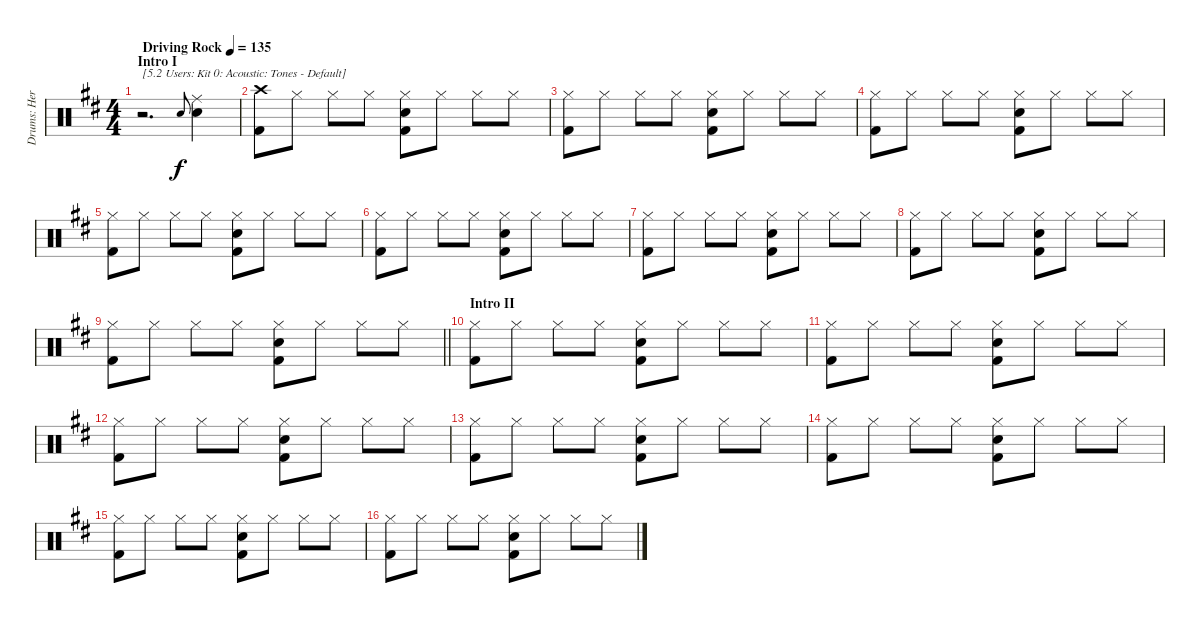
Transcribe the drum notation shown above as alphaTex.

\track ("Drums: Herman" "Drums: Her") {instrument percussion}
\staff {score}
\articulation defaults
\ts (4 4)
\section ("" "Intro I")
\tempo (135 "Driving Rock")
\clef neutral
\ks d
r.2{d txt "[5.2 Users: Kit 0: Acoustic: Tones - Default]" dy f} "Electric Snare (hit)".8{gr onbeat} ("Ride (middle)" "Snare (hit) 2").4 |
("Crash high (hit)" "Kick (hit) 2").8 "Hi-Hat (closed)".8 "Hi-Hat (closed)".8 "Hi-Hat (closed)".8 ("Hi-Hat (closed)" "Snare (hit) 2" "Kick (hit) 2").8 "Hi-Hat (closed)".8 "Hi-Hat (closed)".8 "Hi-Hat (closed)".8 |
("Hi-Hat (closed)" "Kick (hit) 2").8 "Hi-Hat (closed)".8 "Hi-Hat (closed)".8 "Hi-Hat (closed)".8 ("Hi-Hat (closed)" "Snare (hit) 2" "Kick (hit) 2").8 "Hi-Hat (closed)".8 "Hi-Hat (closed)".8 "Hi-Hat (closed)".8 |
("Hi-Hat (closed)" "Kick (hit) 2").8 "Hi-Hat (closed)".8 "Hi-Hat (closed)".8 "Hi-Hat (closed)".8 ("Hi-Hat (closed)" "Snare (hit) 2" "Kick (hit) 2").8 "Hi-Hat (closed)".8 "Hi-Hat (closed)".8 "Hi-Hat (closed)".8 |
("Hi-Hat (closed)" "Kick (hit) 2").8 "Hi-Hat (closed)".8 "Hi-Hat (closed)".8 "Hi-Hat (closed)".8 ("Hi-Hat (closed)" "Snare (hit) 2" "Kick (hit) 2").8 "Hi-Hat (closed)".8 "Hi-Hat (closed)".8 "Hi-Hat (closed)".8 |
("Hi-Hat (closed)" "Kick (hit) 2").8 "Hi-Hat (closed)".8 "Hi-Hat (closed)".8 "Hi-Hat (closed)".8 ("Hi-Hat (closed)" "Snare (hit) 2" "Kick (hit) 2").8 "Hi-Hat (closed)".8 "Hi-Hat (closed)".8 "Hi-Hat (closed)".8 |
("Hi-Hat (closed)" "Kick (hit) 2").8 "Hi-Hat (closed)".8 "Hi-Hat (closed)".8 "Hi-Hat (closed)".8 ("Hi-Hat (closed)" "Snare (hit) 2" "Kick (hit) 2").8 "Hi-Hat (closed)".8 "Hi-Hat (closed)".8 "Hi-Hat (closed)".8 |
("Hi-Hat (closed)" "Kick (hit) 2").8 "Hi-Hat (closed)".8 "Hi-Hat (closed)".8 "Hi-Hat (closed)".8 ("Hi-Hat (closed)" "Snare (hit) 2" "Kick (hit) 2").8 "Hi-Hat (closed)".8 "Hi-Hat (closed)".8 "Hi-Hat (closed)".8 |
\barLineRight lightlight
("Hi-Hat (closed)" "Kick (hit) 2").8 "Hi-Hat (closed)".8 "Hi-Hat (closed)".8 "Hi-Hat (closed)".8 ("Hi-Hat (closed)" "Snare (hit) 2" "Kick (hit) 2").8 "Hi-Hat (closed)".8 "Hi-Hat (closed)".8 "Hi-Hat (closed)".8 |
\section ("" "Intro II")
("Hi-Hat (closed)" "Kick (hit) 2").8 "Hi-Hat (closed)".8 "Hi-Hat (closed)".8 "Hi-Hat (closed)".8 ("Hi-Hat (closed)" "Snare (hit) 2" "Kick (hit) 2").8 "Hi-Hat (closed)".8 "Hi-Hat (closed)".8 "Hi-Hat (closed)".8 |
("Hi-Hat (closed)" "Kick (hit) 2").8 "Hi-Hat (closed)".8 "Hi-Hat (closed)".8 "Hi-Hat (closed)".8 ("Hi-Hat (closed)" "Snare (hit) 2" "Kick (hit) 2").8 "Hi-Hat (closed)".8 "Hi-Hat (closed)".8 "Hi-Hat (closed)".8 |
("Hi-Hat (closed)" "Kick (hit) 2").8 "Hi-Hat (closed)".8 "Hi-Hat (closed)".8 "Hi-Hat (closed)".8 ("Hi-Hat (closed)" "Snare (hit) 2" "Kick (hit) 2").8 "Hi-Hat (closed)".8 "Hi-Hat (closed)".8 "Hi-Hat (closed)".8 |
("Hi-Hat (closed)" "Kick (hit) 2").8 "Hi-Hat (closed)".8 "Hi-Hat (closed)".8 "Hi-Hat (closed)".8 ("Hi-Hat (closed)" "Snare (hit) 2" "Kick (hit) 2").8 "Hi-Hat (closed)".8 "Hi-Hat (closed)".8 "Hi-Hat (closed)".8 |
("Hi-Hat (closed)" "Kick (hit) 2").8 "Hi-Hat (closed)".8 "Hi-Hat (closed)".8 "Hi-Hat (closed)".8 ("Hi-Hat (closed)" "Snare (hit) 2" "Kick (hit) 2").8 "Hi-Hat (closed)".8 "Hi-Hat (closed)".8 "Hi-Hat (closed)".8 |
("Hi-Hat (closed)" "Kick (hit) 2").8 "Hi-Hat (closed)".8 "Hi-Hat (closed)".8 "Hi-Hat (closed)".8 ("Hi-Hat (closed)" "Snare (hit) 2" "Kick (hit) 2").8 "Hi-Hat (closed)".8 "Hi-Hat (closed)".8 "Hi-Hat (closed)".8 |
("Hi-Hat (closed)" "Kick (hit) 2").8 "Hi-Hat (closed)".8 "Hi-Hat (closed)".8 "Hi-Hat (closed)".8 ("Hi-Hat (closed)" "Snare (hit) 2" "Kick (hit) 2").8 "Hi-Hat (closed)".8 "Hi-Hat (closed)".8 "Hi-Hat (closed)".8
